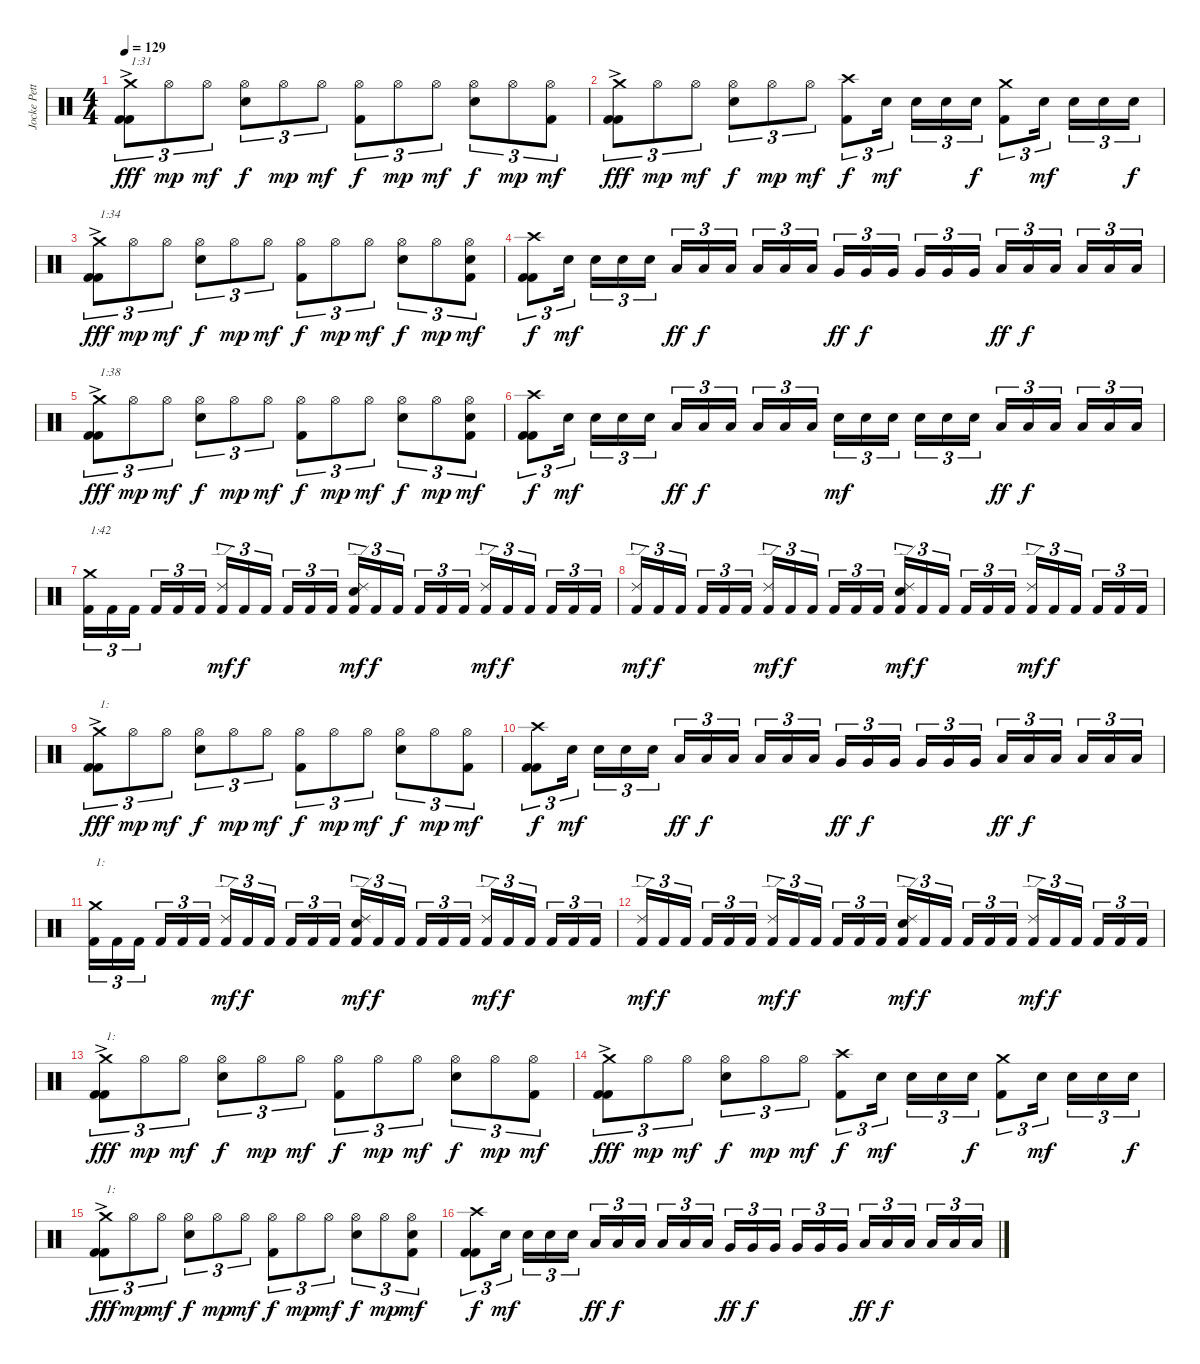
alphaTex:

\track ("Jocke Pettersson" "Jocke Pett") {instrument percussion}
\staff {score}
\articulation defaults
\ts (4 4)
\tempo 129
\clef neutral
\ks c
("Kick (hit) 2" "Kick (hit) 2" "Crash medium (hit)"{ac}).8{tu (3 2) txt "1:31" dy fff} "Hi-Hat (open)".8{tu (3 2) dy mp} "Hi-Hat (open)".8{tu (3 2) dy mf} ("Electric Snare (hit)" "Hi-Hat (open)").8{tu (3 2) dy f} "Hi-Hat (open)".8{tu (3 2) dy mp} "Hi-Hat (open)".8{tu (3 2) dy mf} ("Kick (hit) 2" "Hi-Hat (open)").8{tu (3 2) dy f} "Hi-Hat (open)".8{tu (3 2) dy mp} "Hi-Hat (open)".8{tu (3 2) dy mf} ("Electric Snare (hit)" "Hi-Hat (open)").8{tu (3 2) dy f} "Hi-Hat (open)".8{tu (3 2) dy mp} ("Kick (hit) 2" "Hi-Hat (open)").8{tu (3 2) dy mf} |
("Kick (hit) 2" "Kick (hit) 2" "Crash medium (hit)"{ac}).8{tu (3 2) dy fff} "Hi-Hat (open)".8{tu (3 2) dy mp} "Hi-Hat (open)".8{tu (3 2) dy mf} ("Electric Snare (hit)" "Hi-Hat (open)").8{tu (3 2) dy f} "Hi-Hat (open)".8{tu (3 2) dy mp} "Hi-Hat (open)".8{tu (3 2) dy mf} ("Kick (hit) 2" "Crash high (hit)").8{tu (3 2) dy f} "Electric Snare (hit)".16{tu (3 2) dy mf} "Electric Snare (hit)".16{tu (3 2)} "Electric Snare (hit)".16{tu (3 2)} "Electric Snare (hit)".16{tu (3 2) dy f} ("Kick (hit) 2" "Crash medium (hit)").8{tu (3 2)} "Electric Snare (hit)".16{tu (3 2) dy mf} "Electric Snare (hit)".16{tu (3 2)} "Electric Snare (hit)".16{tu (3 2)} "Electric Snare (hit)".16{tu (3 2) dy f} |
("Kick (hit) 2" "Kick (hit) 2" "Crash medium (hit)"{ac}).8{tu (3 2) txt "1:34" dy fff} "Hi-Hat (open)".8{tu (3 2) dy mp} "Hi-Hat (open)".8{tu (3 2) dy mf} ("Electric Snare (hit)" "Hi-Hat (open)").8{tu (3 2) dy f} "Hi-Hat (open)".8{tu (3 2) dy mp} "Hi-Hat (open)".8{tu (3 2) dy mf} ("Kick (hit) 2" "Hi-Hat (open)").8{tu (3 2) dy f} "Hi-Hat (open)".8{tu (3 2) dy mp} "Hi-Hat (open)".8{tu (3 2) dy mf} ("Electric Snare (hit)" "Hi-Hat (open)").8{tu (3 2) dy f} "Hi-Hat (open)".8{tu (3 2) dy mp} ("Kick (hit) 2" "Electric Snare (hit)" "Hi-Hat (open)").8{tu (3 2) dy mf} |
("Kick (hit) 2" "Kick (hit) 2" "Crash high (hit)").8{tu (3 2) dy f} "Electric Snare (hit)".16{tu (3 2) dy mf} "Electric Snare (hit)".16{tu (3 2)} "Electric Snare (hit)".16{tu (3 2)} "Electric Snare (hit)".16{tu (3 2)} "Low Tom (hit)".16{tu (3 2) dy ff} "Low Tom (hit)".16{tu (3 2) dy f} "Low Tom (hit)".16{tu (3 2)} "Low Tom (hit)".16{tu (3 2)} "Low Tom (hit)".16{tu (3 2)} "Low Tom (hit)".16{tu (3 2)} "Very Low Tom (hit)".16{tu (3 2) dy ff} "Very Low Tom (hit)".16{tu (3 2) dy f} "Very Low Tom (hit)".16{tu (3 2)} "Very Low Tom (hit)".16{tu (3 2)} "Very Low Tom (hit)".16{tu (3 2)} "Very Low Tom (hit)".16{tu (3 2)} "Low Floor Tom (hit)".16{tu (3 2) dy ff} "Low Floor Tom (hit)".16{tu (3 2) dy f} "Low Floor Tom (hit)".16{tu (3 2)} "Low Floor Tom (hit)".16{tu (3 2)} "Low Floor Tom (hit)".16{tu (3 2)} "Low Floor Tom (hit)".16{tu (3 2)} |
("Kick (hit) 2" "Kick (hit) 2" "Crash medium (hit)"{ac}).8{tu (3 2) txt "1:38" dy fff} "Hi-Hat (open)".8{tu (3 2) dy mp} "Hi-Hat (open)".8{tu (3 2) dy mf} ("Electric Snare (hit)" "Hi-Hat (open)").8{tu (3 2) dy f} "Hi-Hat (open)".8{tu (3 2) dy mp} "Hi-Hat (open)".8{tu (3 2) dy mf} ("Kick (hit) 2" "Hi-Hat (open)").8{tu (3 2) dy f} "Hi-Hat (open)".8{tu (3 2) dy mp} "Hi-Hat (open)".8{tu (3 2) dy mf} ("Electric Snare (hit)" "Hi-Hat (open)").8{tu (3 2) dy f} "Hi-Hat (open)".8{tu (3 2) dy mp} ("Kick (hit) 2" "Electric Snare (hit)" "Hi-Hat (open)").8{tu (3 2) dy mf} |
("Kick (hit) 2" "Kick (hit) 2" "Crash high (hit)").8{tu (3 2) dy f} "Electric Snare (hit)".16{tu (3 2) dy mf} "Electric Snare (hit)".16{tu (3 2)} "Electric Snare (hit)".16{tu (3 2)} "Electric Snare (hit)".16{tu (3 2)} "Low Tom (hit)".16{tu (3 2) dy ff} "Low Tom (hit)".16{tu (3 2) dy f} "Low Tom (hit)".16{tu (3 2)} "Low Tom (hit)".16{tu (3 2)} "Low Tom (hit)".16{tu (3 2)} "Low Tom (hit)".16{tu (3 2)} "Electric Snare (hit)".16{tu (3 2) dy mf} "Electric Snare (hit)".16{tu (3 2)} "Electric Snare (hit)".16{tu (3 2)} "Electric Snare (hit)".16{tu (3 2)} "Electric Snare (hit)".16{tu (3 2)} "Electric Snare (hit)".16{tu (3 2)} "Low Tom (hit)".16{tu (3 2) dy ff} "Low Tom (hit)".16{tu (3 2) dy f} "Low Tom (hit)".16{tu (3 2)} "Low Tom (hit)".16{tu (3 2)} "Low Tom (hit)".16{tu (3 2)} "Low Tom (hit)".16{tu (3 2)} |
("Kick (hit) 2" "Crash medium (hit)").16{tu (3 2) txt "1:42"} "Kick (hit) 2".16{tu (3 2)} "Kick (hit) 2".16{tu (3 2)} "Kick (hit) 2".16{tu (3 2)} "Kick (hit) 2".16{tu (3 2)} "Kick (hit) 2".16{tu (3 2)} ("Kick (hit) 2" "Ride (edge) 2").16{tu (3 2) dy mf} "Kick (hit) 2".16{tu (3 2) dy f} "Kick (hit) 2".16{tu (3 2)} "Kick (hit) 2".16{tu (3 2)} "Kick (hit) 2".16{tu (3 2)} "Kick (hit) 2".16{tu (3 2)} ("Kick (hit) 2" "Electric Snare (hit)" "Ride (edge) 2").16{tu (3 2) dy mf} "Kick (hit) 2".16{tu (3 2) dy f} "Kick (hit) 2".16{tu (3 2)} "Kick (hit) 2".16{tu (3 2)} "Kick (hit) 2".16{tu (3 2)} "Kick (hit) 2".16{tu (3 2)} ("Kick (hit) 2" "Ride (edge) 2").16{tu (3 2) dy mf} "Kick (hit) 2".16{tu (3 2) dy f} "Kick (hit) 2".16{tu (3 2)} "Kick (hit) 2".16{tu (3 2)} "Kick (hit) 2".16{tu (3 2)} "Kick (hit) 2".16{tu (3 2)} |
("Kick (hit) 2" "Ride (edge) 2").16{tu (3 2) dy mf} "Kick (hit) 2".16{tu (3 2) dy f} "Kick (hit) 2".16{tu (3 2)} "Kick (hit) 2".16{tu (3 2)} "Kick (hit) 2".16{tu (3 2)} "Kick (hit) 2".16{tu (3 2)} ("Kick (hit) 2" "Ride (edge) 2").16{tu (3 2) dy mf} "Kick (hit) 2".16{tu (3 2) dy f} "Kick (hit) 2".16{tu (3 2)} "Kick (hit) 2".16{tu (3 2)} "Kick (hit) 2".16{tu (3 2)} "Kick (hit) 2".16{tu (3 2)} ("Kick (hit) 2" "Electric Snare (hit)" "Ride (edge) 2").16{tu (3 2) dy mf} "Kick (hit) 2".16{tu (3 2) dy f} "Kick (hit) 2".16{tu (3 2)} "Kick (hit) 2".16{tu (3 2)} "Kick (hit) 2".16{tu (3 2)} "Kick (hit) 2".16{tu (3 2)} ("Kick (hit) 2" "Ride (edge) 2").16{tu (3 2) dy mf} "Kick (hit) 2".16{tu (3 2) dy f} "Kick (hit) 2".16{tu (3 2)} "Kick (hit) 2".16{tu (3 2)} "Kick (hit) 2".16{tu (3 2)} "Kick (hit) 2".16{tu (3 2)} |
("Kick (hit) 2" "Kick (hit) 2" "Crash medium (hit)"{ac}).8{tu (3 2) txt "1:" dy fff} "Hi-Hat (open)".8{tu (3 2) dy mp} "Hi-Hat (open)".8{tu (3 2) dy mf} ("Electric Snare (hit)" "Hi-Hat (open)").8{tu (3 2) dy f} "Hi-Hat (open)".8{tu (3 2) dy mp} "Hi-Hat (open)".8{tu (3 2) dy mf} ("Kick (hit) 2" "Hi-Hat (open)").8{tu (3 2) dy f} "Hi-Hat (open)".8{tu (3 2) dy mp} "Hi-Hat (open)".8{tu (3 2) dy mf} ("Electric Snare (hit)" "Hi-Hat (open)").8{tu (3 2) dy f} "Hi-Hat (open)".8{tu (3 2) dy mp} ("Kick (hit) 2" "Hi-Hat (open)").8{tu (3 2) dy mf} |
("Kick (hit) 2" "Kick (hit) 2" "Crash high (hit)").8{tu (3 2) dy f} "Electric Snare (hit)".16{tu (3 2) dy mf} "Electric Snare (hit)".16{tu (3 2)} "Electric Snare (hit)".16{tu (3 2)} "Electric Snare (hit)".16{tu (3 2)} "Low Tom (hit)".16{tu (3 2) dy ff} "Low Tom (hit)".16{tu (3 2) dy f} "Low Tom (hit)".16{tu (3 2)} "Low Tom (hit)".16{tu (3 2)} "Low Tom (hit)".16{tu (3 2)} "Low Tom (hit)".16{tu (3 2)} "Very Low Tom (hit)".16{tu (3 2) dy ff} "Very Low Tom (hit)".16{tu (3 2) dy f} "Very Low Tom (hit)".16{tu (3 2)} "Very Low Tom (hit)".16{tu (3 2)} "Very Low Tom (hit)".16{tu (3 2)} "Very Low Tom (hit)".16{tu (3 2)} "Low Floor Tom (hit)".16{tu (3 2) dy ff} "Low Floor Tom (hit)".16{tu (3 2) dy f} "Low Floor Tom (hit)".16{tu (3 2)} "Low Floor Tom (hit)".16{tu (3 2)} "Low Floor Tom (hit)".16{tu (3 2)} "Low Floor Tom (hit)".16{tu (3 2)} |
("Kick (hit) 2" "Crash medium (hit)").16{tu (3 2) txt "1:"} "Kick (hit) 2".16{tu (3 2)} "Kick (hit) 2".16{tu (3 2)} "Kick (hit) 2".16{tu (3 2)} "Kick (hit) 2".16{tu (3 2)} "Kick (hit) 2".16{tu (3 2)} ("Kick (hit) 2" "Ride (edge) 2").16{tu (3 2) dy mf} "Kick (hit) 2".16{tu (3 2) dy f} "Kick (hit) 2".16{tu (3 2)} "Kick (hit) 2".16{tu (3 2)} "Kick (hit) 2".16{tu (3 2)} "Kick (hit) 2".16{tu (3 2)} ("Kick (hit) 2" "Electric Snare (hit)" "Ride (edge) 2").16{tu (3 2) dy mf} "Kick (hit) 2".16{tu (3 2) dy f} "Kick (hit) 2".16{tu (3 2)} "Kick (hit) 2".16{tu (3 2)} "Kick (hit) 2".16{tu (3 2)} "Kick (hit) 2".16{tu (3 2)} ("Kick (hit) 2" "Ride (edge) 2").16{tu (3 2) dy mf} "Kick (hit) 2".16{tu (3 2) dy f} "Kick (hit) 2".16{tu (3 2)} "Kick (hit) 2".16{tu (3 2)} "Kick (hit) 2".16{tu (3 2)} "Kick (hit) 2".16{tu (3 2)} |
("Kick (hit) 2" "Ride (edge) 2").16{tu (3 2) dy mf} "Kick (hit) 2".16{tu (3 2) dy f} "Kick (hit) 2".16{tu (3 2)} "Kick (hit) 2".16{tu (3 2)} "Kick (hit) 2".16{tu (3 2)} "Kick (hit) 2".16{tu (3 2)} ("Kick (hit) 2" "Ride (edge) 2").16{tu (3 2) dy mf} "Kick (hit) 2".16{tu (3 2) dy f} "Kick (hit) 2".16{tu (3 2)} "Kick (hit) 2".16{tu (3 2)} "Kick (hit) 2".16{tu (3 2)} "Kick (hit) 2".16{tu (3 2)} ("Kick (hit) 2" "Electric Snare (hit)" "Ride (edge) 2").16{tu (3 2) dy mf} "Kick (hit) 2".16{tu (3 2) dy f} "Kick (hit) 2".16{tu (3 2)} "Kick (hit) 2".16{tu (3 2)} "Kick (hit) 2".16{tu (3 2)} "Kick (hit) 2".16{tu (3 2)} ("Kick (hit) 2" "Ride (edge) 2").16{tu (3 2) dy mf} "Kick (hit) 2".16{tu (3 2) dy f} "Kick (hit) 2".16{tu (3 2)} "Kick (hit) 2".16{tu (3 2)} "Kick (hit) 2".16{tu (3 2)} "Kick (hit) 2".16{tu (3 2)} |
("Kick (hit) 2" "Kick (hit) 2" "Crash medium (hit)"{ac}).8{tu (3 2) txt "1:" dy fff} "Hi-Hat (open)".8{tu (3 2) dy mp} "Hi-Hat (open)".8{tu (3 2) dy mf} ("Electric Snare (hit)" "Hi-Hat (open)").8{tu (3 2) dy f} "Hi-Hat (open)".8{tu (3 2) dy mp} "Hi-Hat (open)".8{tu (3 2) dy mf} ("Kick (hit) 2" "Hi-Hat (open)").8{tu (3 2) dy f} "Hi-Hat (open)".8{tu (3 2) dy mp} "Hi-Hat (open)".8{tu (3 2) dy mf} ("Electric Snare (hit)" "Hi-Hat (open)").8{tu (3 2) dy f} "Hi-Hat (open)".8{tu (3 2) dy mp} ("Kick (hit) 2" "Hi-Hat (open)").8{tu (3 2) dy mf} |
("Kick (hit) 2" "Kick (hit) 2" "Crash medium (hit)"{ac}).8{tu (3 2) dy fff} "Hi-Hat (open)".8{tu (3 2) dy mp} "Hi-Hat (open)".8{tu (3 2) dy mf} ("Electric Snare (hit)" "Hi-Hat (open)").8{tu (3 2) dy f} "Hi-Hat (open)".8{tu (3 2) dy mp} "Hi-Hat (open)".8{tu (3 2) dy mf} ("Kick (hit) 2" "Crash high (hit)").8{tu (3 2) dy f} "Electric Snare (hit)".16{tu (3 2) dy mf} "Electric Snare (hit)".16{tu (3 2)} "Electric Snare (hit)".16{tu (3 2)} "Electric Snare (hit)".16{tu (3 2) dy f} ("Kick (hit) 2" "Crash medium (hit)").8{tu (3 2)} "Electric Snare (hit)".16{tu (3 2) dy mf} "Electric Snare (hit)".16{tu (3 2)} "Electric Snare (hit)".16{tu (3 2)} "Electric Snare (hit)".16{tu (3 2) dy f} |
("Kick (hit) 2" "Kick (hit) 2" "Crash medium (hit)"{ac}).8{tu (3 2) txt "1:" dy fff} "Hi-Hat (open)".8{tu (3 2) dy mp} "Hi-Hat (open)".8{tu (3 2) dy mf} ("Electric Snare (hit)" "Hi-Hat (open)").8{tu (3 2) dy f} "Hi-Hat (open)".8{tu (3 2) dy mp} "Hi-Hat (open)".8{tu (3 2) dy mf} ("Kick (hit) 2" "Hi-Hat (open)").8{tu (3 2) dy f} "Hi-Hat (open)".8{tu (3 2) dy mp} "Hi-Hat (open)".8{tu (3 2) dy mf} ("Electric Snare (hit)" "Hi-Hat (open)").8{tu (3 2) dy f} "Hi-Hat (open)".8{tu (3 2) dy mp} ("Kick (hit) 2" "Electric Snare (hit)" "Hi-Hat (open)").8{tu (3 2) dy mf} |
("Kick (hit) 2" "Kick (hit) 2" "Crash high (hit)").8{tu (3 2) dy f} "Electric Snare (hit)".16{tu (3 2) dy mf} "Electric Snare (hit)".16{tu (3 2)} "Electric Snare (hit)".16{tu (3 2)} "Electric Snare (hit)".16{tu (3 2)} "Low Tom (hit)".16{tu (3 2) dy ff} "Low Tom (hit)".16{tu (3 2) dy f} "Low Tom (hit)".16{tu (3 2)} "Low Tom (hit)".16{tu (3 2)} "Low Tom (hit)".16{tu (3 2)} "Low Tom (hit)".16{tu (3 2)} "Very Low Tom (hit)".16{tu (3 2) dy ff} "Very Low Tom (hit)".16{tu (3 2) dy f} "Very Low Tom (hit)".16{tu (3 2)} "Very Low Tom (hit)".16{tu (3 2)} "Very Low Tom (hit)".16{tu (3 2)} "Very Low Tom (hit)".16{tu (3 2)} "Low Floor Tom (hit)".16{tu (3 2) dy ff} "Low Floor Tom (hit)".16{tu (3 2) dy f} "Low Floor Tom (hit)".16{tu (3 2)} "Low Floor Tom (hit)".16{tu (3 2)} "Low Floor Tom (hit)".16{tu (3 2)} "Low Floor Tom (hit)".16{tu (3 2)}
